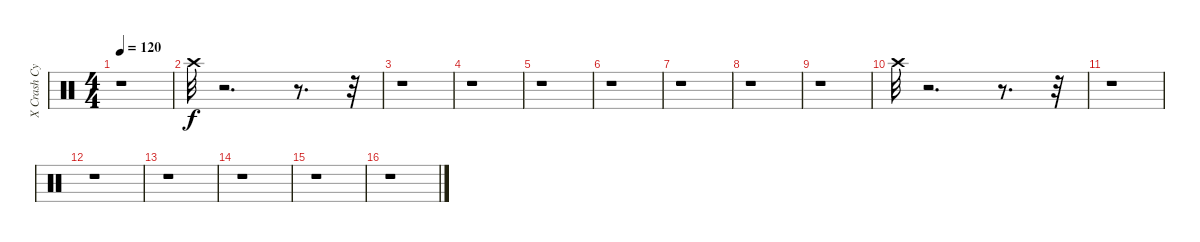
\track ("X Crash Cymbal      " "X Crash Cy") {instrument percussion}
\staff {score}
\articulation defaults
\ts (4 4)
\tempo 120
\clef neutral
\ks c
r.1{dy f} |
"Crash high (hit)".32 r.2{d} r.8{d} r.32 |
r.1 |
r.1 |
r.1 |
r.1 |
r.1 |
r.1 |
r.1 |
"Crash high (hit)".32 r.2{d} r.8{d} r.32 |
r.1 |
r.1 |
r.1 |
r.1 |
r.1 |
r.1
